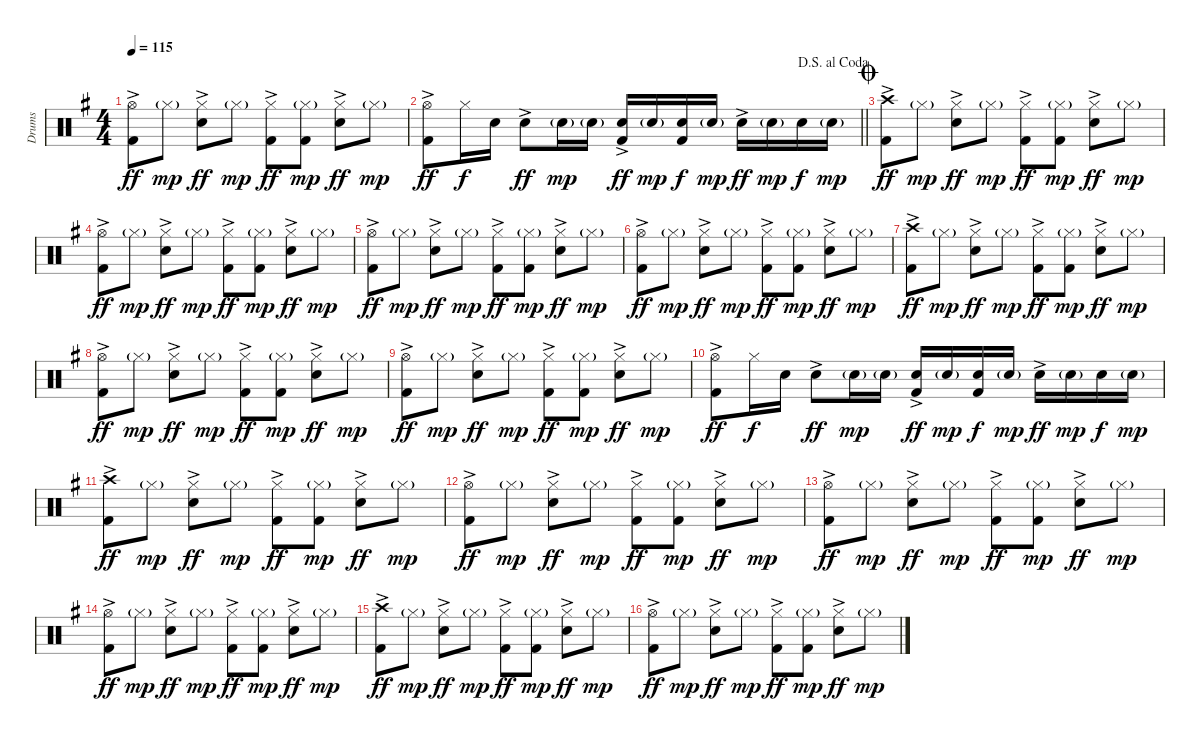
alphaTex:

\track ("Drums" "Drums") {instrument percussion}
\staff {score}
\articulation defaults
\ts (4 4)
\tempo 115
\clef neutral
\ks g
("Hi-Hat (open)" "Kick (hit) 2"{ac}).8{dy ff} "Hi-Hat (closed)"{g}.8{dy mp} ("Hi-Hat (closed)" "Snare (hit) 2"{ac}).8{dy ff} "Hi-Hat (closed)"{g}.8{dy mp} ("Hi-Hat (closed)" "Kick (hit) 2"{ac}).8{dy ff} ("Hi-Hat (closed)"{g} "Kick (hit) 2").8{dy mp} ("Hi-Hat (closed)" "Snare (hit) 2"{ac}).8{dy ff} "Hi-Hat (closed)"{g}.8{dy mp} |
\jump dalsegnoalcoda
\barLineRight lightlight
("Hi-Hat (open)" "Kick (hit) 2"{ac}).8{dy ff} "Hi-Hat (closed)".16{dy f} "Snare (hit) 2".16 "Snare (hit) 2"{ac}.8{dy ff} "Snare (hit) 2"{g}.16{dy mp} "Snare (hit) 2"{g}.16 ("Snare (hit) 2" "Kick (hit) 2"{ac}).16{dy ff} "Snare (hit) 2"{g}.16{dy mp} ("Snare (hit) 2" "Kick (hit) 2").16{dy f} "Snare (hit) 2"{g}.16{dy mp} "Snare (hit) 2"{ac}.16{dy ff} "Snare (hit) 2"{g}.16{dy mp} "Snare (hit) 2".16{dy f} "Snare (hit) 2"{g}.16{dy mp} |
\jump coda
("Crash high (hit)" "Kick (hit) 2"{ac}).8{dy ff} "Hi-Hat (closed)"{g}.8{dy mp} ("Hi-Hat (closed)" "Snare (hit) 2"{ac}).8{dy ff} "Hi-Hat (closed)"{g}.8{dy mp} ("Hi-Hat (closed)" "Kick (hit) 2"{ac}).8{dy ff} ("Hi-Hat (closed)"{g} "Kick (hit) 2").8{dy mp} ("Hi-Hat (closed)" "Snare (hit) 2"{ac}).8{dy ff} "Hi-Hat (closed)"{g}.8{dy mp} |
("Hi-Hat (open)" "Kick (hit) 2"{ac}).8{dy ff} "Hi-Hat (closed)"{g}.8{dy mp} ("Hi-Hat (closed)" "Snare (hit) 2"{ac}).8{dy ff} "Hi-Hat (closed)"{g}.8{dy mp} ("Hi-Hat (closed)" "Kick (hit) 2"{ac}).8{dy ff} ("Hi-Hat (closed)"{g} "Kick (hit) 2").8{dy mp} ("Hi-Hat (closed)" "Snare (hit) 2"{ac}).8{dy ff} "Hi-Hat (closed)"{g}.8{dy mp} |
("Hi-Hat (open)" "Kick (hit) 2"{ac}).8{dy ff} "Hi-Hat (closed)"{g}.8{dy mp} ("Hi-Hat (closed)" "Snare (hit) 2"{ac}).8{dy ff} "Hi-Hat (closed)"{g}.8{dy mp} ("Hi-Hat (closed)" "Kick (hit) 2"{ac}).8{dy ff} ("Hi-Hat (closed)"{g} "Kick (hit) 2").8{dy mp} ("Hi-Hat (closed)" "Snare (hit) 2"{ac}).8{dy ff} "Hi-Hat (closed)"{g}.8{dy mp} |
("Hi-Hat (open)" "Kick (hit) 2"{ac}).8{dy ff} "Hi-Hat (closed)"{g}.8{dy mp} ("Hi-Hat (closed)" "Snare (hit) 2"{ac}).8{dy ff} "Hi-Hat (closed)"{g}.8{dy mp} ("Hi-Hat (closed)" "Kick (hit) 2"{ac}).8{dy ff} ("Hi-Hat (closed)"{g} "Kick (hit) 2").8{dy mp} ("Hi-Hat (closed)" "Snare (hit) 2"{ac}).8{dy ff} "Hi-Hat (closed)"{g}.8{dy mp} |
("Crash high (hit)" "Kick (hit) 2"{ac}).8{dy ff} "Hi-Hat (closed)"{g}.8{dy mp} ("Hi-Hat (closed)" "Snare (hit) 2"{ac}).8{dy ff} "Hi-Hat (closed)"{g}.8{dy mp} ("Hi-Hat (closed)" "Kick (hit) 2"{ac}).8{dy ff} ("Hi-Hat (closed)"{g} "Kick (hit) 2").8{dy mp} ("Hi-Hat (closed)" "Snare (hit) 2"{ac}).8{dy ff} "Hi-Hat (closed)"{g}.8{dy mp} |
("Hi-Hat (open)" "Kick (hit) 2"{ac}).8{dy ff} "Hi-Hat (closed)"{g}.8{dy mp} ("Hi-Hat (closed)" "Snare (hit) 2"{ac}).8{dy ff} "Hi-Hat (closed)"{g}.8{dy mp} ("Hi-Hat (closed)" "Kick (hit) 2"{ac}).8{dy ff} ("Hi-Hat (closed)"{g} "Kick (hit) 2").8{dy mp} ("Hi-Hat (closed)" "Snare (hit) 2"{ac}).8{dy ff} "Hi-Hat (closed)"{g}.8{dy mp} |
("Hi-Hat (open)" "Kick (hit) 2"{ac}).8{dy ff} "Hi-Hat (closed)"{g}.8{dy mp} ("Hi-Hat (closed)" "Snare (hit) 2"{ac}).8{dy ff} "Hi-Hat (closed)"{g}.8{dy mp} ("Hi-Hat (closed)" "Kick (hit) 2"{ac}).8{dy ff} ("Hi-Hat (closed)"{g} "Kick (hit) 2").8{dy mp} ("Hi-Hat (closed)" "Snare (hit) 2"{ac}).8{dy ff} "Hi-Hat (closed)"{g}.8{dy mp} |
("Hi-Hat (open)" "Kick (hit) 2"{ac}).8{dy ff} "Hi-Hat (closed)".16{dy f} "Snare (hit) 2".16 "Snare (hit) 2"{ac}.8{dy ff} "Snare (hit) 2"{g}.16{dy mp} "Snare (hit) 2"{g}.16 ("Snare (hit) 2" "Kick (hit) 2"{ac}).16{dy ff} "Snare (hit) 2"{g}.16{dy mp} ("Snare (hit) 2" "Kick (hit) 2").16{dy f} "Snare (hit) 2"{g}.16{dy mp} "Snare (hit) 2"{ac}.16{dy ff} "Snare (hit) 2"{g}.16{dy mp} "Snare (hit) 2".16{dy f} "Snare (hit) 2"{g}.16{dy mp} |
("Crash high (hit)" "Kick (hit) 2"{ac}).8{dy ff} "Hi-Hat (closed)"{g}.8{dy mp} ("Hi-Hat (closed)" "Snare (hit) 2"{ac}).8{dy ff} "Hi-Hat (closed)"{g}.8{dy mp} ("Hi-Hat (closed)" "Kick (hit) 2"{ac}).8{dy ff} ("Hi-Hat (closed)"{g} "Kick (hit) 2").8{dy mp} ("Hi-Hat (closed)" "Snare (hit) 2"{ac}).8{dy ff} "Hi-Hat (closed)"{g}.8{dy mp} |
("Hi-Hat (open)" "Kick (hit) 2"{ac}).8{dy ff} "Hi-Hat (closed)"{g}.8{dy mp} ("Hi-Hat (closed)" "Snare (hit) 2"{ac}).8{dy ff} "Hi-Hat (closed)"{g}.8{dy mp} ("Hi-Hat (closed)" "Kick (hit) 2"{ac}).8{dy ff} ("Hi-Hat (closed)"{g} "Kick (hit) 2").8{dy mp} ("Hi-Hat (closed)" "Snare (hit) 2"{ac}).8{dy ff} "Hi-Hat (closed)"{g}.8{dy mp} |
("Hi-Hat (open)" "Kick (hit) 2"{ac}).8{dy ff} "Hi-Hat (closed)"{g}.8{dy mp} ("Hi-Hat (closed)" "Snare (hit) 2"{ac}).8{dy ff} "Hi-Hat (closed)"{g}.8{dy mp} ("Hi-Hat (closed)" "Kick (hit) 2"{ac}).8{dy ff} ("Hi-Hat (closed)"{g} "Kick (hit) 2").8{dy mp} ("Hi-Hat (closed)" "Snare (hit) 2"{ac}).8{dy ff} "Hi-Hat (closed)"{g}.8{dy mp} |
("Hi-Hat (open)" "Kick (hit) 2"{ac}).8{dy ff} "Hi-Hat (closed)"{g}.8{dy mp} ("Hi-Hat (closed)" "Snare (hit) 2"{ac}).8{dy ff} "Hi-Hat (closed)"{g}.8{dy mp} ("Hi-Hat (closed)" "Kick (hit) 2"{ac}).8{dy ff} ("Hi-Hat (closed)"{g} "Kick (hit) 2").8{dy mp} ("Hi-Hat (closed)" "Snare (hit) 2"{ac}).8{dy ff} "Hi-Hat (closed)"{g}.8{dy mp} |
("Crash high (hit)" "Kick (hit) 2"{ac}).8{dy ff} "Hi-Hat (closed)"{g}.8{dy mp} ("Hi-Hat (closed)" "Snare (hit) 2"{ac}).8{dy ff} "Hi-Hat (closed)"{g}.8{dy mp} ("Hi-Hat (closed)" "Kick (hit) 2"{ac}).8{dy ff} ("Hi-Hat (closed)"{g} "Kick (hit) 2").8{dy mp} ("Hi-Hat (closed)" "Snare (hit) 2"{ac}).8{dy ff} "Hi-Hat (closed)"{g}.8{dy mp} |
("Hi-Hat (open)" "Kick (hit) 2"{ac}).8{dy ff} "Hi-Hat (closed)"{g}.8{dy mp} ("Hi-Hat (closed)" "Snare (hit) 2"{ac}).8{dy ff} "Hi-Hat (closed)"{g}.8{dy mp} ("Hi-Hat (closed)" "Kick (hit) 2"{ac}).8{dy ff} ("Hi-Hat (closed)"{g} "Kick (hit) 2").8{dy mp} ("Hi-Hat (closed)" "Snare (hit) 2"{ac}).8{dy ff} "Hi-Hat (closed)"{g}.8{dy mp}
